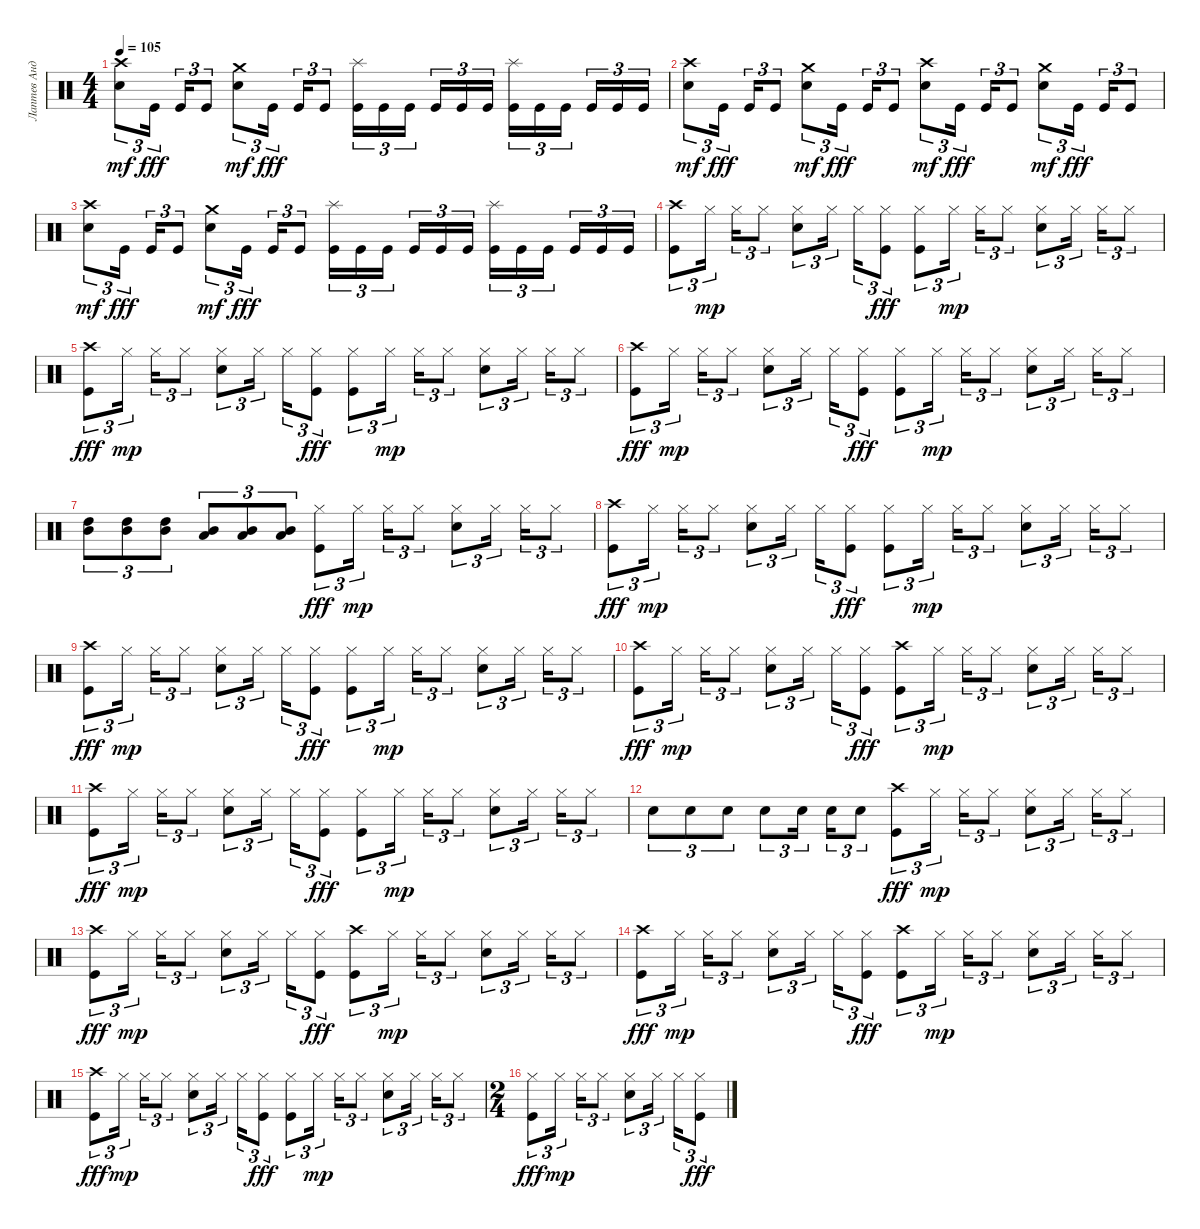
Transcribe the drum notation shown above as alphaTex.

\track ("Лаптев Андрей" "Лаптев Анд") {instrument percussion}
\staff {score}
\articulation defaults
\ts (4 4)
\tempo 105
\clef neutral
\ks c
("Crash high (hit)" "Electric Snare (hit)").8{tu (3 2) dy mf} "Kick (hit)".16{tu (3 2) dy fff} "Kick (hit)".16{tu (3 2)} "Kick (hit)".8{tu (3 2)} ("Electric Snare (hit)" "Crash medium (hit)").8{tu (3 2) dy mf} "Kick (hit)".16{tu (3 2) dy fff} "Kick (hit)".16{tu (3 2)} "Kick (hit)".8{tu (3 2)} ("Splash (hit)" "Kick (hit)").16{tu (3 2)} "Kick (hit)".16{tu (3 2)} "Kick (hit)".16{tu (3 2)} "Kick (hit)".16{tu (3 2)} "Kick (hit)".16{tu (3 2)} "Kick (hit)".16{tu (3 2)} ("Splash (hit)" "Kick (hit)").16{tu (3 2)} "Kick (hit)".16{tu (3 2)} "Kick (hit)".16{tu (3 2)} "Kick (hit)".16{tu (3 2)} "Kick (hit)".16{tu (3 2)} "Kick (hit)".16{tu (3 2)} |
("Crash high (hit)" "Electric Snare (hit)").8{tu (3 2) dy mf} "Kick (hit)".16{tu (3 2) dy fff} "Kick (hit)".16{tu (3 2)} "Kick (hit)".8{tu (3 2)} ("Electric Snare (hit)" "Crash medium (hit)").8{tu (3 2) dy mf} "Kick (hit)".16{tu (3 2) dy fff} "Kick (hit)".16{tu (3 2)} "Kick (hit)".8{tu (3 2)} ("Crash high (hit)" "Electric Snare (hit)").8{tu (3 2) dy mf} "Kick (hit)".16{tu (3 2) dy fff} "Kick (hit)".16{tu (3 2)} "Kick (hit)".8{tu (3 2)} ("Crash medium (hit)" "Electric Snare (hit)").8{tu (3 2) dy mf} "Kick (hit)".16{tu (3 2) dy fff} "Kick (hit)".16{tu (3 2)} "Kick (hit)".8{tu (3 2)} |
("Crash high (hit)" "Electric Snare (hit)").8{tu (3 2) dy mf} "Kick (hit)".16{tu (3 2) dy fff} "Kick (hit)".16{tu (3 2)} "Kick (hit)".8{tu (3 2)} ("Electric Snare (hit)" "Crash medium (hit)").8{tu (3 2) dy mf} "Kick (hit)".16{tu (3 2) dy fff} "Kick (hit)".16{tu (3 2)} "Kick (hit)".8{tu (3 2)} ("Splash (hit)" "Kick (hit)").16{tu (3 2)} "Kick (hit)".16{tu (3 2)} "Kick (hit)".16{tu (3 2)} "Kick (hit)".16{tu (3 2)} "Kick (hit)".16{tu (3 2)} "Kick (hit)".16{tu (3 2)} ("Splash (hit)" "Kick (hit)").16{tu (3 2)} "Kick (hit)".16{tu (3 2)} "Kick (hit)".16{tu (3 2)} "Kick (hit)".16{tu (3 2)} "Kick (hit)".16{tu (3 2)} "Kick (hit)".16{tu (3 2)} |
("Crash high (hit)" "Kick (hit)").8{tu (3 2)} "Hi-Hat (closed)".16{tu (3 2) dy mp} "Hi-Hat (closed)".16{tu (3 2)} "Hi-Hat (closed)".8{tu (3 2)} ("Electric Snare (hit)" "Hi-Hat (closed)").8{tu (3 2)} "Hi-Hat (closed)".16{tu (3 2)} "Hi-Hat (closed)".16{tu (3 2)} ("Hi-Hat (closed)" "Kick (hit)").8{tu (3 2) dy fff} ("Hi-Hat (closed)" "Kick (hit)").8{tu (3 2)} "Hi-Hat (closed)".16{tu (3 2) dy mp} "Hi-Hat (closed)".16{tu (3 2)} "Hi-Hat (closed)".8{tu (3 2)} ("Hi-Hat (closed)" "Electric Snare (hit)").8{tu (3 2)} "Hi-Hat (closed)".16{tu (3 2)} "Hi-Hat (closed)".16{tu (3 2)} "Hi-Hat (closed)".8{tu (3 2)} |
("Crash high (hit)" "Kick (hit)").8{tu (3 2) dy fff} "Hi-Hat (closed)".16{tu (3 2) dy mp} "Hi-Hat (closed)".16{tu (3 2)} "Hi-Hat (closed)".8{tu (3 2)} ("Electric Snare (hit)" "Hi-Hat (closed)").8{tu (3 2)} "Hi-Hat (closed)".16{tu (3 2)} "Hi-Hat (closed)".16{tu (3 2)} ("Hi-Hat (closed)" "Kick (hit)").8{tu (3 2) dy fff} ("Hi-Hat (closed)" "Kick (hit)").8{tu (3 2)} "Hi-Hat (closed)".16{tu (3 2) dy mp} "Hi-Hat (closed)".16{tu (3 2)} "Hi-Hat (closed)".8{tu (3 2)} ("Hi-Hat (closed)" "Electric Snare (hit)").8{tu (3 2)} "Hi-Hat (closed)".16{tu (3 2)} "Hi-Hat (closed)".16{tu (3 2)} "Hi-Hat (closed)".8{tu (3 2)} |
("Crash high (hit)" "Kick (hit)").8{tu (3 2) dy fff} "Hi-Hat (closed)".16{tu (3 2) dy mp} "Hi-Hat (closed)".16{tu (3 2)} "Hi-Hat (closed)".8{tu (3 2)} ("Electric Snare (hit)" "Hi-Hat (closed)").8{tu (3 2)} "Hi-Hat (closed)".16{tu (3 2)} "Hi-Hat (closed)".16{tu (3 2)} ("Hi-Hat (closed)" "Kick (hit)").8{tu (3 2) dy fff} ("Hi-Hat (closed)" "Kick (hit)").8{tu (3 2)} "Hi-Hat (closed)".16{tu (3 2) dy mp} "Hi-Hat (closed)".16{tu (3 2)} "Hi-Hat (closed)".8{tu (3 2)} ("Hi-Hat (closed)" "Electric Snare (hit)").8{tu (3 2)} "Hi-Hat (closed)".16{tu (3 2)} "Hi-Hat (closed)".16{tu (3 2)} "Hi-Hat (closed)".8{tu (3 2)} |
("Mid Tom (hit)" "High Tom (hit)").8{tu (3 2)} ("Mid Tom (hit)" "High Tom (hit)").8{tu (3 2)} ("Mid Tom (hit)" "High Tom (hit)").8{tu (3 2)} ("Low Tom (hit)" "Mid Tom (hit)").8{tu (3 2)} ("Low Tom (hit)" "Mid Tom (hit)").8{tu (3 2)} ("Low Tom (hit)" "Mid Tom (hit)").8{tu (3 2)} ("Hi-Hat (closed)" "Kick (hit)").8{tu (3 2) dy fff} "Hi-Hat (closed)".16{tu (3 2) dy mp} "Hi-Hat (closed)".16{tu (3 2)} "Hi-Hat (closed)".8{tu (3 2)} ("Hi-Hat (closed)" "Electric Snare (hit)").8{tu (3 2)} "Hi-Hat (closed)".16{tu (3 2)} "Hi-Hat (closed)".16{tu (3 2)} "Hi-Hat (closed)".8{tu (3 2)} |
("Crash high (hit)" "Kick (hit)").8{tu (3 2) dy fff} "Hi-Hat (closed)".16{tu (3 2) dy mp} "Hi-Hat (closed)".16{tu (3 2)} "Hi-Hat (closed)".8{tu (3 2)} ("Electric Snare (hit)" "Hi-Hat (closed)").8{tu (3 2)} "Hi-Hat (closed)".16{tu (3 2)} "Hi-Hat (closed)".16{tu (3 2)} ("Hi-Hat (closed)" "Kick (hit)").8{tu (3 2) dy fff} ("Hi-Hat (closed)" "Kick (hit)").8{tu (3 2)} "Hi-Hat (closed)".16{tu (3 2) dy mp} "Hi-Hat (closed)".16{tu (3 2)} "Hi-Hat (closed)".8{tu (3 2)} ("Hi-Hat (closed)" "Electric Snare (hit)").8{tu (3 2)} "Hi-Hat (closed)".16{tu (3 2)} "Hi-Hat (closed)".16{tu (3 2)} "Hi-Hat (closed)".8{tu (3 2)} |
("Crash high (hit)" "Kick (hit)").8{tu (3 2) dy fff} "Hi-Hat (closed)".16{tu (3 2) dy mp} "Hi-Hat (closed)".16{tu (3 2)} "Hi-Hat (closed)".8{tu (3 2)} ("Electric Snare (hit)" "Hi-Hat (closed)").8{tu (3 2)} "Hi-Hat (closed)".16{tu (3 2)} "Hi-Hat (closed)".16{tu (3 2)} ("Hi-Hat (closed)" "Kick (hit)").8{tu (3 2) dy fff} ("Hi-Hat (closed)" "Kick (hit)").8{tu (3 2)} "Hi-Hat (closed)".16{tu (3 2) dy mp} "Hi-Hat (closed)".16{tu (3 2)} "Hi-Hat (closed)".8{tu (3 2)} ("Hi-Hat (closed)" "Electric Snare (hit)").8{tu (3 2)} "Hi-Hat (closed)".16{tu (3 2)} "Hi-Hat (closed)".16{tu (3 2)} "Hi-Hat (closed)".8{tu (3 2)} |
("Crash high (hit)" "Kick (hit)").8{tu (3 2) dy fff} "Hi-Hat (closed)".16{tu (3 2) dy mp} "Hi-Hat (closed)".16{tu (3 2)} "Hi-Hat (closed)".8{tu (3 2)} ("Electric Snare (hit)" "Hi-Hat (closed)").8{tu (3 2)} "Hi-Hat (closed)".16{tu (3 2)} "Hi-Hat (closed)".16{tu (3 2)} ("Hi-Hat (closed)" "Kick (hit)").8{tu (3 2) dy fff} ("Crash high (hit)" "Kick (hit)").8{tu (3 2)} "Hi-Hat (closed)".16{tu (3 2) dy mp} "Hi-Hat (closed)".16{tu (3 2)} "Hi-Hat (closed)".8{tu (3 2)} ("Hi-Hat (closed)" "Electric Snare (hit)").8{tu (3 2)} "Hi-Hat (closed)".16{tu (3 2)} "Hi-Hat (closed)".16{tu (3 2)} "Hi-Hat (closed)".8{tu (3 2)} |
("Crash high (hit)" "Kick (hit)").8{tu (3 2) dy fff} "Hi-Hat (closed)".16{tu (3 2) dy mp} "Hi-Hat (closed)".16{tu (3 2)} "Hi-Hat (closed)".8{tu (3 2)} ("Electric Snare (hit)" "Hi-Hat (closed)").8{tu (3 2)} "Hi-Hat (closed)".16{tu (3 2)} "Hi-Hat (closed)".16{tu (3 2)} ("Hi-Hat (closed)" "Kick (hit)").8{tu (3 2) dy fff} ("Hi-Hat (closed)" "Kick (hit)").8{tu (3 2)} "Hi-Hat (closed)".16{tu (3 2) dy mp} "Hi-Hat (closed)".16{tu (3 2)} "Hi-Hat (closed)".8{tu (3 2)} ("Hi-Hat (closed)" "Electric Snare (hit)").8{tu (3 2)} "Hi-Hat (closed)".16{tu (3 2)} "Hi-Hat (closed)".16{tu (3 2)} "Hi-Hat (closed)".8{tu (3 2)} |
"Electric Snare (hit)".8{tu (3 2)} "Electric Snare (hit)".8{tu (3 2)} "Electric Snare (hit)".8{tu (3 2)} "Electric Snare (hit)".8{tu (3 2)} "Electric Snare (hit)".16{tu (3 2)} "Electric Snare (hit)".16{tu (3 2)} "Electric Snare (hit)".8{tu (3 2)} ("Crash high (hit)" "Kick (hit)").8{tu (3 2) dy fff} "Hi-Hat (closed)".16{tu (3 2) dy mp} "Hi-Hat (closed)".16{tu (3 2)} "Hi-Hat (closed)".8{tu (3 2)} ("Hi-Hat (closed)" "Electric Snare (hit)").8{tu (3 2)} "Hi-Hat (closed)".16{tu (3 2)} "Hi-Hat (closed)".16{tu (3 2)} "Hi-Hat (closed)".8{tu (3 2)} |
("Crash high (hit)" "Kick (hit)").8{tu (3 2) dy fff} "Hi-Hat (closed)".16{tu (3 2) dy mp} "Hi-Hat (closed)".16{tu (3 2)} "Hi-Hat (closed)".8{tu (3 2)} ("Electric Snare (hit)" "Hi-Hat (closed)").8{tu (3 2)} "Hi-Hat (closed)".16{tu (3 2)} "Hi-Hat (closed)".16{tu (3 2)} ("Hi-Hat (closed)" "Kick (hit)").8{tu (3 2) dy fff} ("Crash high (hit)" "Kick (hit)").8{tu (3 2)} "Hi-Hat (closed)".16{tu (3 2) dy mp} "Hi-Hat (closed)".16{tu (3 2)} "Hi-Hat (closed)".8{tu (3 2)} ("Hi-Hat (closed)" "Electric Snare (hit)").8{tu (3 2)} "Hi-Hat (closed)".16{tu (3 2)} "Hi-Hat (closed)".16{tu (3 2)} "Hi-Hat (closed)".8{tu (3 2)} |
("Crash high (hit)" "Kick (hit)").8{tu (3 2) dy fff} "Hi-Hat (closed)".16{tu (3 2) dy mp} "Hi-Hat (closed)".16{tu (3 2)} "Hi-Hat (closed)".8{tu (3 2)} ("Electric Snare (hit)" "Hi-Hat (closed)").8{tu (3 2)} "Hi-Hat (closed)".16{tu (3 2)} "Hi-Hat (closed)".16{tu (3 2)} ("Hi-Hat (closed)" "Kick (hit)").8{tu (3 2) dy fff} ("Crash high (hit)" "Kick (hit)").8{tu (3 2)} "Hi-Hat (closed)".16{tu (3 2) dy mp} "Hi-Hat (closed)".16{tu (3 2)} "Hi-Hat (closed)".8{tu (3 2)} ("Hi-Hat (closed)" "Electric Snare (hit)").8{tu (3 2)} "Hi-Hat (closed)".16{tu (3 2)} "Hi-Hat (closed)".16{tu (3 2)} "Hi-Hat (closed)".8{tu (3 2)} |
("Crash high (hit)" "Kick (hit)").8{tu (3 2) dy fff} "Hi-Hat (closed)".16{tu (3 2) dy mp} "Hi-Hat (closed)".16{tu (3 2)} "Hi-Hat (closed)".8{tu (3 2)} ("Electric Snare (hit)" "Hi-Hat (closed)").8{tu (3 2)} "Hi-Hat (closed)".16{tu (3 2)} "Hi-Hat (closed)".16{tu (3 2)} ("Hi-Hat (closed)" "Kick (hit)").8{tu (3 2) dy fff} ("Hi-Hat (closed)" "Kick (hit)").8{tu (3 2)} "Hi-Hat (closed)".16{tu (3 2) dy mp} "Hi-Hat (closed)".16{tu (3 2)} "Hi-Hat (closed)".8{tu (3 2)} ("Hi-Hat (closed)" "Electric Snare (hit)").8{tu (3 2)} "Hi-Hat (closed)".16{tu (3 2)} "Hi-Hat (closed)".16{tu (3 2)} "Hi-Hat (closed)".8{tu (3 2)} |
\ts (2 4)
("Hi-Hat (closed)" "Kick (hit)").8{tu (3 2) dy fff} "Hi-Hat (closed)".16{tu (3 2) dy mp} "Hi-Hat (closed)".16{tu (3 2)} "Hi-Hat (closed)".8{tu (3 2)} ("Electric Snare (hit)" "Hi-Hat (closed)").8{tu (3 2)} "Hi-Hat (closed)".16{tu (3 2)} "Hi-Hat (closed)".16{tu (3 2)} ("Hi-Hat (closed)" "Kick (hit)").8{tu (3 2) dy fff}
